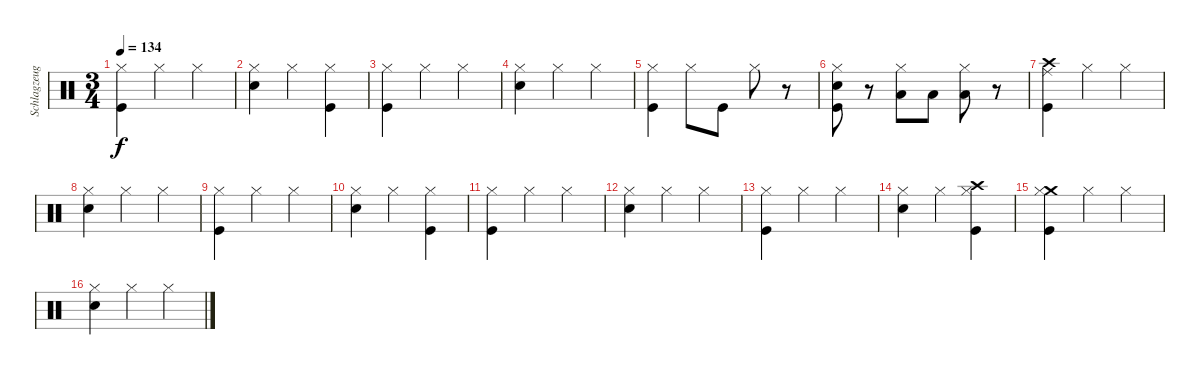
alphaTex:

\track ("Schlagzeug" "Schlagzeug") {instrument percussion}
\staff {score}
\articulation defaults
\ts (3 4)
\tempo 134
\clef neutral
\ks c
("Hi-Hat (closed)" "Kick (hit)").4{dy f} "Hi-Hat (closed)".4 "Hi-Hat (closed)".4 |
("Hi-Hat (closed)" "Snare (hit) 2").4 "Hi-Hat (closed)".4 ("Hi-Hat (closed)" "Kick (hit)").4 |
("Hi-Hat (closed)" "Kick (hit)").4 "Hi-Hat (closed)".4 "Hi-Hat (closed)".4 |
("Hi-Hat (closed)" "Snare (hit) 2").4 "Hi-Hat (closed)".4 "Hi-Hat (closed)".4 |
("Hi-Hat (closed)" "Kick (hit)").4 "Hi-Hat (closed)".8 "Kick (hit)".8 "Hi-Hat (closed)".8 r.8 |
("Hi-Hat (closed)" "Kick (hit)" "Snare (hit) 2").8 r.8 ("Hi-Hat (closed)" "Low Floor Tom (hit)").8 "Low Floor Tom (hit)".8 ("Hi-Hat (closed)" "Low Floor Tom (hit)").8 r.8 |
("Crash high (hit)" "Ride (middle)" "Kick (hit)").4 "Hi-Hat (closed)".4 "Hi-Hat (closed)".4 |
("Hi-Hat (closed)" "Snare (hit) 2").4 "Hi-Hat (closed)".4 "Hi-Hat (closed)".4 |
("Hi-Hat (closed)" "Kick (hit)").4 "Hi-Hat (closed)".4 "Hi-Hat (closed)".4 |
("Hi-Hat (closed)" "Snare (hit) 2").4 "Hi-Hat (closed)".4 ("Hi-Hat (closed)" "Kick (hit)").4 |
("Hi-Hat (closed)" "Kick (hit)").4 "Hi-Hat (closed)".4 "Hi-Hat (closed)".4 |
("Hi-Hat (closed)" "Snare (hit) 2").4 "Hi-Hat (closed)".4 "Hi-Hat (closed)".4 |
("Hi-Hat (closed)" "Kick (hit)").4 "Hi-Hat (closed)".4 "Hi-Hat (closed)".4 |
("Hi-Hat (closed)" "Snare (hit) 2").4 "Hi-Hat (closed)".4 ("Crash high (hit)" "Hi-Hat (closed)" "Kick (hit)").4 |
("Crash medium (hit)" "Hi-Hat (closed)" "Kick (hit)").4 "Hi-Hat (closed)".4 "Hi-Hat (closed)".4 |
("Hi-Hat (closed)" "Snare (hit) 2").4 "Hi-Hat (closed)".4 "Hi-Hat (closed)".4
